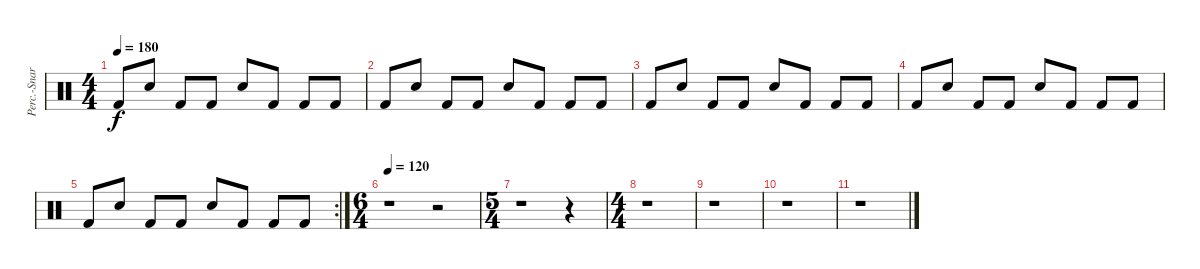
\track ("Perc.-Snare/Kick" "Perc.-Snar") {instrument percussion}
\staff {score}
\articulation defaults
\ts (4 4)
\tempo 180
\clef neutral
\ks c "Kick (hit) 2".8{dy f} "Snare (hit) 2".8 "Kick (hit) 2".8 "Kick (hit) 2".8 "Snare (hit) 2".8 "Kick (hit) 2".8 "Kick (hit) 2".8 "Kick (hit) 2".8
|
"Kick (hit) 2".8 "Snare (hit) 2".8 "Kick (hit) 2".8 "Kick (hit) 2".8 "Snare (hit) 2".8 "Kick (hit) 2".8 "Kick (hit) 2".8 "Kick (hit) 2".8 |
"Kick (hit) 2".8 "Snare (hit) 2".8 "Kick (hit) 2".8 "Kick (hit) 2".8 "Snare (hit) 2".8 "Kick (hit) 2".8 "Kick (hit) 2".8 "Kick (hit) 2".8 |
"Kick (hit) 2".8 "Snare (hit) 2".8 "Kick (hit) 2".8 "Kick (hit) 2".8 "Snare (hit) 2".8 "Kick (hit) 2".8 "Kick (hit) 2".8 "Kick (hit) 2".8 |
\rc 2 "Kick (hit) 2".8 "Snare (hit) 2".8 "Kick (hit) 2".8 "Kick (hit) 2".8 "Snare (hit) 2".8 "Kick (hit) 2".8 "Kick (hit) 2".8 "Kick (hit) 2".8
|
\ts (6 4)
\tempo 120
r.1 r.2 |
\ts (5 4)
r.1 r.4 |
\ts (4 4)
r.1 |
r.1 |
r.1 |
r.1
